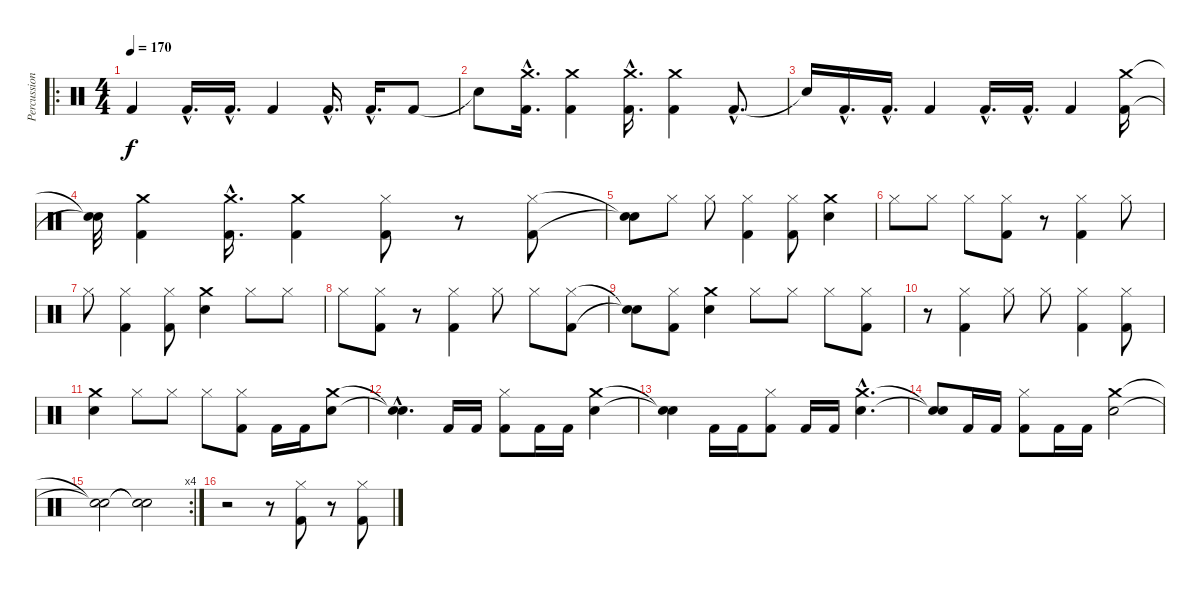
\track ("Percussions" "Percussion") {instrument percussion}
\staff {score}
\articulation defaults
\ro
\ts (4 4)
\tempo 170
\clef neutral
\ks c "Kick (hit) 2".4{dy f} "Kick (hit) 2"{hac}.16{d} "Kick (hit) 2"{hac}.16{d} "Kick (hit) 2".4 "Kick (hit) 2"{hac}.16{d} "Kick (hit) 2"{hac}.16{d} "Kick (hit) 2".8
|
"Snare (hit)"{t}.8 ("Kick (hit) 2"{hac} "Crash medium (hit)"{hac}).16{d} ("Kick (hit) 2" "Crash medium (hit)").4 ("Kick (hit) 2"{hac} "Crash medium (hit)"{hac}).16{d} ("Kick (hit) 2" "Crash medium (hit)").4 "Kick (hit) 2"{hac}.8{d} |
"Snare (hit)"{t}.16 "Kick (hit) 2"{hac}.16{d} "Kick (hit) 2"{hac}.16{d} "Kick (hit) 2".4 "Kick (hit) 2"{hac}.16{d} "Kick (hit) 2"{hac}.16{d} "Kick (hit) 2".4 ("Kick (hit) 2" "Crash medium (hit)").16 |
("Snare (hit)"{t} "Snare (hit)"{t}).32 ("Kick (hit) 2" "Crash medium (hit)").4 ("Kick (hit) 2"{hac} "Crash medium (hit)"{hac}).16{d} ("Kick (hit) 2" "Crash medium (hit)").4 ("Hi-Hat (closed)" "Kick (hit) 2").8 r.8 ("Hi-Hat (closed)" "Kick (hit) 2").8 |
("Snare (hit)"{t} "Snare (hit)"{t}).8 "Hi-Hat (closed)".8 "Hi-Hat (closed)".8 ("Hi-Hat (closed)" "Kick (hit) 2").4 ("Hi-Hat (closed)" "Kick (hit) 2").8 ("Snare (hit) 2" "Crash medium (hit)").4 |
"Hi-Hat (closed)".8 "Hi-Hat (closed)".8 "Hi-Hat (closed)".8 ("Hi-Hat (closed)" "Kick (hit) 2").8 r.8 ("Hi-Hat (closed)" "Kick (hit) 2").4 "Hi-Hat (closed)".8 |
"Hi-Hat (closed)".8 ("Hi-Hat (closed)" "Kick (hit) 2").4 ("Hi-Hat (closed)" "Kick (hit) 2").8 ("Snare (hit) 2" "Crash medium (hit)").4 "Hi-Hat (closed)".8 "Hi-Hat (closed)".8 |
"Hi-Hat (closed)".8 ("Hi-Hat (closed)" "Kick (hit) 2").8 r.8 ("Hi-Hat (closed)" "Kick (hit) 2").4 "Hi-Hat (closed)".8 "Hi-Hat (closed)".8 ("Hi-Hat (closed)" "Kick (hit) 2").8 |
("Snare (hit)"{t} "Snare (hit)"{t}).8 ("Hi-Hat (closed)" "Kick (hit) 2").8 ("Snare (hit) 2" "Crash medium (hit)").4 "Hi-Hat (closed)".8 "Hi-Hat (closed)".8 "Hi-Hat (closed)".8 ("Hi-Hat (closed)" "Kick (hit) 2").8 |
r.8 ("Hi-Hat (closed)" "Kick (hit) 2").4 "Hi-Hat (closed)".8 "Hi-Hat (closed)".8 ("Hi-Hat (closed)" "Kick (hit) 2").4 ("Hi-Hat (closed)" "Kick (hit) 2").8 |
("Snare (hit) 2" "Crash medium (hit)").4 "Hi-Hat (closed)".8 "Hi-Hat (closed)".8 "Hi-Hat (closed)".8 ("Hi-Hat (closed)" "Kick (hit) 2").8 "Kick (hit) 2".16 "Kick (hit) 2".16 ("Snare (hit) 2" "Crash medium (hit)").8 |
("Snare (hit)"{hac t} "Snare (hit)"{hac t}).4{d} "Kick (hit) 2".16 "Kick (hit) 2".16 ("Hi-Hat (closed)" "Kick (hit) 2").8 "Kick (hit) 2".16 "Kick (hit) 2".16 ("Snare (hit) 2" "Crash medium (hit)").4 |
("Snare (hit)"{t} "Snare (hit)"{t}).4 "Kick (hit) 2".16 "Kick (hit) 2".16 ("Hi-Hat (closed)" "Kick (hit) 2").8 "Kick (hit) 2".16 "Kick (hit) 2".16 ("Snare (hit) 2"{hac} "Crash medium (hit)"{hac}).4{d} |
("Snare (hit)"{t} "Snare (hit)"{t}).8 "Kick (hit) 2".16 "Kick (hit) 2".16 ("Hi-Hat (closed)" "Kick (hit) 2").8 "Kick (hit) 2".16 "Kick (hit) 2".16 ("Snare (hit) 2" "Crash medium (hit)").2 |
\rc 4
("Snare (hit)"{t} "Snare (hit)"{t}).2 ("Snare (hit)"{t} "Snare (hit)"{t}).2 |
r.2 r.8 ("Hi-Hat (closed)" "Kick (hit) 2").8 r.8 ("Hi-Hat (closed)" "Kick (hit) 2").8
